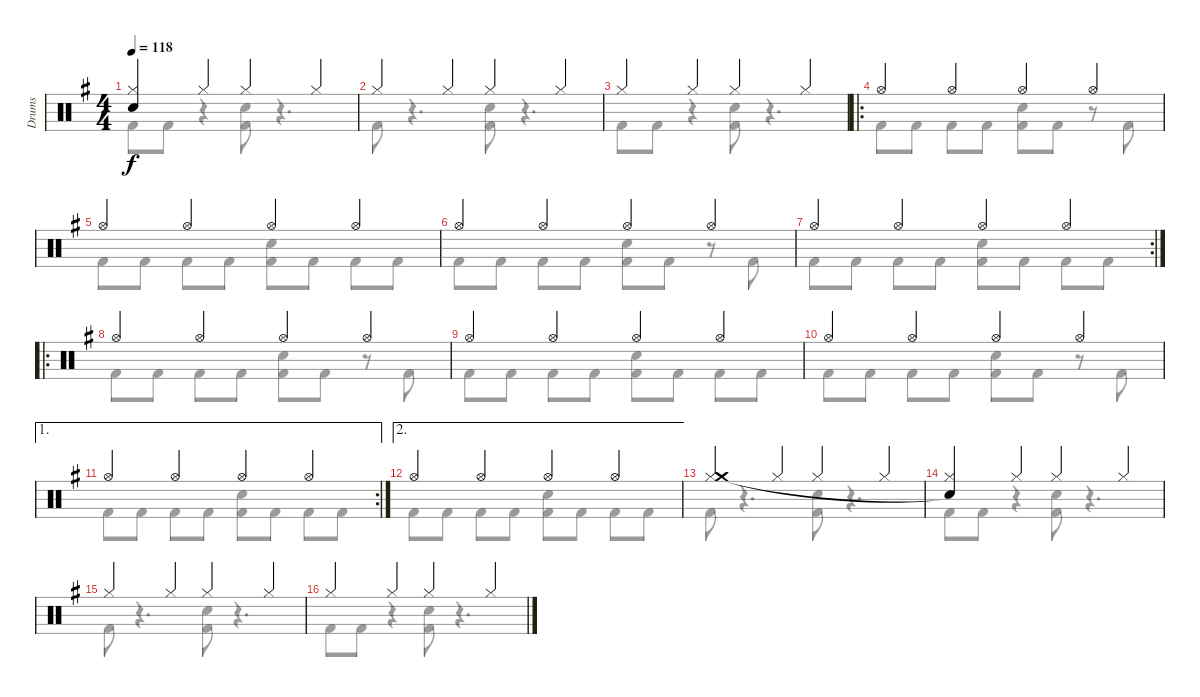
\track ("Drums" "Drums") {instrument percussion}
\staff {score}
\articulation defaults
\voice
\ts (4 4)
\tempo 118
\clef neutral
\ks eminor
("Hi-Hat (closed)" "Snare (hit)"{t}).4{dy f} "Hi-Hat (closed)".4 "Hi-Hat (closed)".4 "Hi-Hat (closed)".4 |
"Hi-Hat (closed)".4 "Hi-Hat (closed)".4 "Hi-Hat (closed)".4 "Hi-Hat (closed)".4 |
"Hi-Hat (closed)".4 "Hi-Hat (closed)".4 "Hi-Hat (closed)".4 "Hi-Hat (closed)".4 |
\ro "Hi-Hat (open)".4{volume 16} "Hi-Hat (open)".4 "Hi-Hat (open)".4 "Hi-Hat (open)".4
|
"Hi-Hat (open)".4 "Hi-Hat (open)".4 "Hi-Hat (open)".4 "Hi-Hat (open)".4 |
"Hi-Hat (open)".4 "Hi-Hat (open)".4 "Hi-Hat (open)".4 "Hi-Hat (open)".4 |
\rc 2 "Hi-Hat (open)".4 "Hi-Hat (open)".4 "Hi-Hat (open)".4 "Hi-Hat (open)".4
|
\ro "Hi-Hat (open)".4 "Hi-Hat (open)".4 "Hi-Hat (open)".4 "Hi-Hat (open)".4
|
"Hi-Hat (open)".4 "Hi-Hat (open)".4 "Hi-Hat (open)".4 "Hi-Hat (open)".4 |
"Hi-Hat (open)".4 "Hi-Hat (open)".4 "Hi-Hat (open)".4 "Hi-Hat (open)".4 |
\ae 1
\rc 2 "Hi-Hat (open)".4 "Hi-Hat (open)".4 "Hi-Hat (open)".4 "Hi-Hat (open)".4
|
\ae 2 "Hi-Hat (open)".4 "Hi-Hat (open)".4 "Hi-Hat (open)".4 "Hi-Hat (open)".4
|
("Hi-Hat (closed)" "Crash medium (hit)").4{volume 12} "Hi-Hat (closed)".4 "Hi-Hat (closed)".4 "Hi-Hat (closed)".4 |
("Hi-Hat (closed)" "Snare (hit)"{t}).4 "Hi-Hat (closed)".4 "Hi-Hat (closed)".4 "Hi-Hat (closed)".4 |
"Hi-Hat (closed)".4 "Hi-Hat (closed)".4 "Hi-Hat (closed)".4 "Hi-Hat (closed)".4 |
"Hi-Hat (closed)".4 "Hi-Hat (closed)".4 "Hi-Hat (closed)".4 "Hi-Hat (closed)".4
\voice
\clef neutral
\ottava regular
\simile none
\ks eminor "Kick (hit) 2".8{dy f} "Kick (hit) 2".8
r.4 ("Kick (hit) 2" "Electric Snare (hit)").8 r.4{d} |
"Kick (hit) 2".8 r.4{d} ("Kick (hit) 2" "Electric Snare (hit)").8 r.4{d} |
"Kick (hit) 2".8 "Kick (hit) 2".8 r.4 ("Kick (hit) 2" "Electric Snare (hit)").8 r.4{d} |
"Kick (hit) 2".8 "Kick (hit) 2".8 "Kick (hit) 2".8 "Kick (hit) 2".8 ("Kick (hit) 2" "Electric Snare (hit)").8 "Kick (hit) 2".8 r.8 "Kick (hit) 2".8 |
"Kick (hit) 2".8 "Kick (hit) 2".8 "Kick (hit) 2".8 "Kick (hit) 2".8 ("Kick (hit) 2" "Electric Snare (hit)").8 "Kick (hit) 2".8 "Kick (hit) 2".8 "Kick (hit) 2".8 |
"Kick (hit) 2".8 "Kick (hit) 2".8 "Kick (hit) 2".8 "Kick (hit) 2".8 ("Kick (hit) 2" "Electric Snare (hit)").8 "Kick (hit) 2".8 r.8 "Kick (hit) 2".8 |
"Kick (hit) 2".8 "Kick (hit) 2".8 "Kick (hit) 2".8 "Kick (hit) 2".8 ("Kick (hit) 2" "Electric Snare (hit)").8 "Kick (hit) 2".8 "Kick (hit) 2".8 "Kick (hit) 2".8 |
"Kick (hit) 2".8 "Kick (hit) 2".8 "Kick (hit) 2".8 "Kick (hit) 2".8 ("Kick (hit) 2" "Electric Snare (hit)").8 "Kick (hit) 2".8 r.8 "Kick (hit) 2".8 |
"Kick (hit) 2".8 "Kick (hit) 2".8 "Kick (hit) 2".8 "Kick (hit) 2".8 ("Kick (hit) 2" "Electric Snare (hit)").8 "Kick (hit) 2".8 "Kick (hit) 2".8 "Kick (hit) 2".8 |
"Kick (hit) 2".8 "Kick (hit) 2".8 "Kick (hit) 2".8 "Kick (hit) 2".8 ("Kick (hit) 2" "Electric Snare (hit)").8 "Kick (hit) 2".8 r.8 "Kick (hit) 2".8 |
"Kick (hit) 2".8 "Kick (hit) 2".8 "Kick (hit) 2".8 "Kick (hit) 2".8 ("Kick (hit) 2" "Electric Snare (hit)").8 "Kick (hit) 2".8 "Kick (hit) 2".8 "Kick (hit) 2".8 |
"Kick (hit) 2".8 "Kick (hit) 2".8 "Kick (hit) 2".8 "Kick (hit) 2".8 ("Kick (hit) 2" "Electric Snare (hit)").8 "Kick (hit) 2".8 "Kick (hit) 2".8 "Kick (hit) 2".8 |
"Kick (hit) 2".8 r.4{d} ("Kick (hit) 2" "Electric Snare (hit)").8 r.4{d} |
"Kick (hit) 2".8 "Kick (hit) 2".8 r.4 ("Kick (hit) 2" "Electric Snare (hit)").8 r.4{d} |
"Kick (hit) 2".8 r.4{d} ("Kick (hit) 2" "Electric Snare (hit)").8 r.4{d} |
"Kick (hit) 2".8 "Kick (hit) 2".8 r.4 ("Kick (hit) 2" "Electric Snare (hit)").8 r.4{d}
